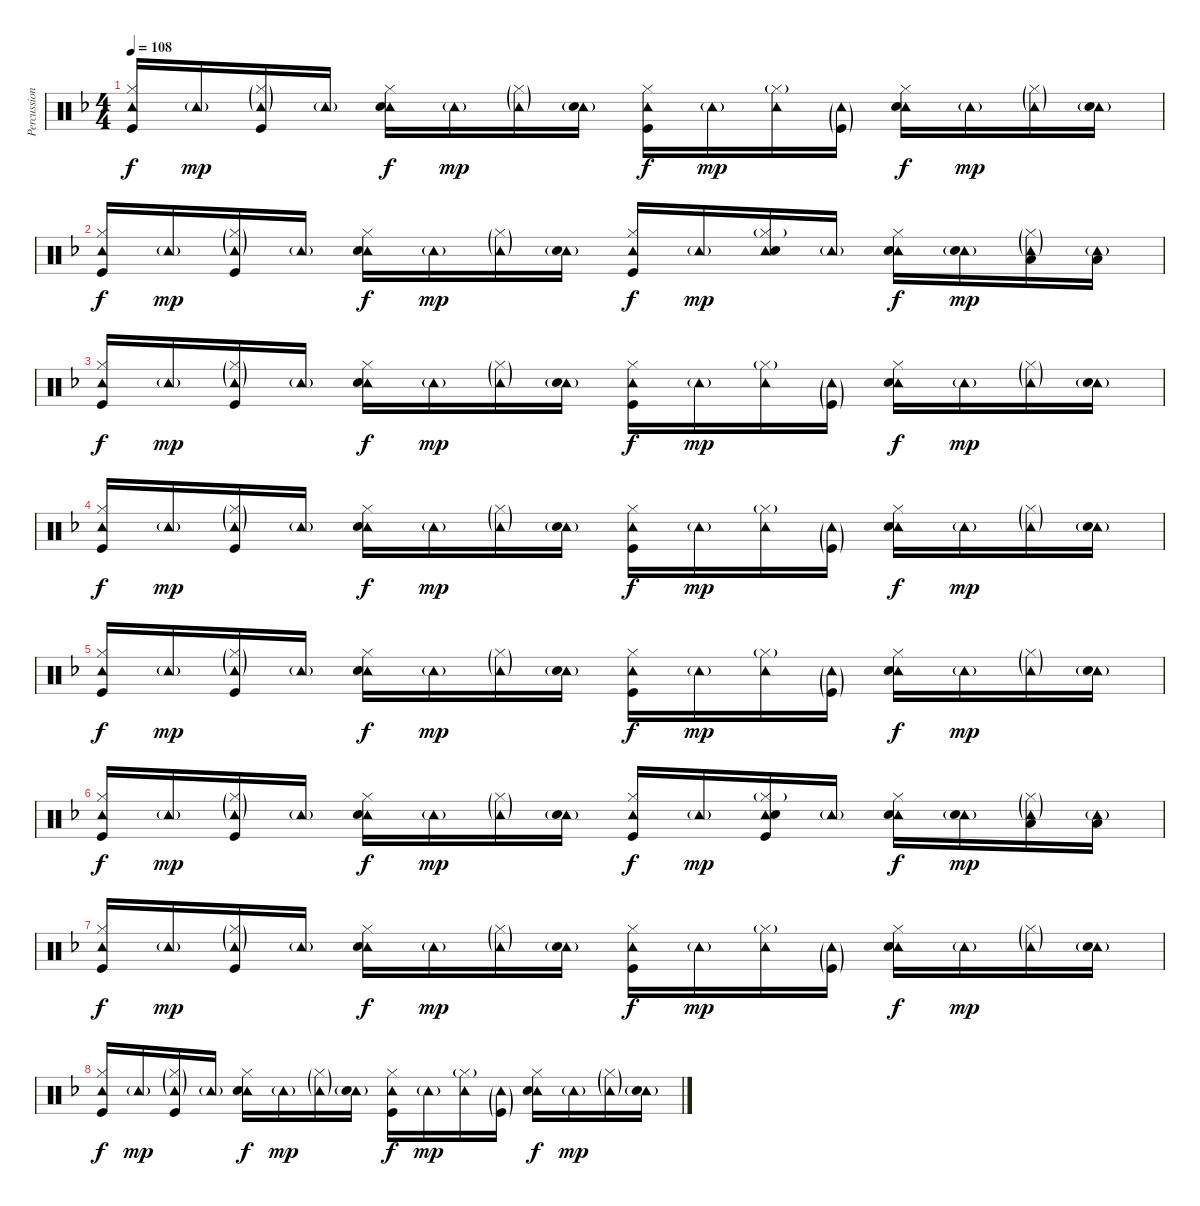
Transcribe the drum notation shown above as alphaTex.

\track ("Percussion" "Percussion") {instrument percussion}
\staff {score}
\articulation defaults
\ts (4 4)
\tempo 108
\clef neutral
\ks f
("Tambourine (hit)" "Hi-Hat (closed)" "Kick (hit)").16{dy f} "Tambourine (hit)"{g}.16{dy mp} ("Tambourine (hit)"{g} "Hi-Hat (closed)"{g} "Kick (hit)").16 "Tambourine (hit)"{g}.16 ("Tambourine (hit)" "Hi-Hat (closed)" "Snare (hit) 2").16{dy f} "Tambourine (hit)"{g}.16{dy mp} ("Tambourine (hit)"{g} "Hi-Hat (closed)"{g}).16 ("Tambourine (hit)"{g} "Snare (hit) 2"{g}).16 ("Tambourine (hit)" "Hi-Hat (closed)" "Kick (hit)").16{dy f} "Tambourine (hit)"{g}.16{dy mp} ("Tambourine (hit)" "Hi-Hat (closed)"{g}).16 ("Tambourine (hit)"{g} "Kick (hit)"{g}).16 ("Tambourine (hit)" "Hi-Hat (closed)" "Snare (hit) 2").16{dy f} "Tambourine (hit)"{g}.16{dy mp} ("Tambourine (hit)"{g} "Hi-Hat (closed)"{g}).16 ("Tambourine (hit)"{g} "Snare (hit) 2"{g}).16 |
("Tambourine (hit)" "Hi-Hat (closed)" "Kick (hit)").16{dy f} "Tambourine (hit)"{g}.16{dy mp} ("Tambourine (hit)"{g} "Hi-Hat (closed)"{g} "Kick (hit)").16 "Tambourine (hit)"{g}.16 ("Tambourine (hit)" "Hi-Hat (closed)" "Snare (hit) 2").16{dy f} "Tambourine (hit)"{g}.16{dy mp} ("Tambourine (hit)"{g} "Hi-Hat (closed)"{g}).16 ("Tambourine (hit)"{g} "Snare (hit) 2"{g}).16 ("Tambourine (hit)" "Hi-Hat (closed)" "Kick (hit)").16{dy f} "Tambourine (hit)"{g}.16{dy mp} ("Tambourine (hit)" "Hi-Hat (closed)"{g} "Snare (hit) 2").16 "Tambourine (hit)"{g}.16 ("Tambourine (hit)" "Hi-Hat (closed)" "Snare (hit) 2").16{dy f} ("Tambourine (hit)"{g} "Snare (hit) 2").16{dy mp} ("Tambourine (hit)"{g} "Hi-Hat (closed)"{g} "Low Tom (hit)").16 ("Tambourine (hit)"{g} "Low Tom (hit)").16 |
("Tambourine (hit)" "Hi-Hat (closed)" "Kick (hit)").16{dy f} "Tambourine (hit)"{g}.16{dy mp} ("Tambourine (hit)"{g} "Hi-Hat (closed)"{g} "Kick (hit)").16 "Tambourine (hit)"{g}.16 ("Tambourine (hit)" "Hi-Hat (closed)" "Snare (hit) 2").16{dy f} "Tambourine (hit)"{g}.16{dy mp} ("Tambourine (hit)"{g} "Hi-Hat (closed)"{g}).16 ("Tambourine (hit)"{g} "Snare (hit) 2"{g}).16 ("Tambourine (hit)" "Hi-Hat (closed)" "Kick (hit)").16{dy f} "Tambourine (hit)"{g}.16{dy mp} ("Tambourine (hit)" "Hi-Hat (closed)"{g}).16 ("Tambourine (hit)"{g} "Kick (hit)"{g}).16 ("Tambourine (hit)" "Hi-Hat (closed)" "Snare (hit) 2").16{dy f} "Tambourine (hit)"{g}.16{dy mp} ("Tambourine (hit)"{g} "Hi-Hat (closed)"{g}).16 ("Tambourine (hit)"{g} "Snare (hit) 2"{g}).16 |
("Tambourine (hit)" "Hi-Hat (closed)" "Kick (hit)").16{dy f} "Tambourine (hit)"{g}.16{dy mp} ("Tambourine (hit)"{g} "Hi-Hat (closed)"{g} "Kick (hit)").16 "Tambourine (hit)"{g}.16 ("Tambourine (hit)" "Hi-Hat (closed)" "Snare (hit) 2").16{dy f} "Tambourine (hit)"{g}.16{dy mp} ("Tambourine (hit)"{g} "Hi-Hat (closed)"{g}).16 ("Tambourine (hit)"{g} "Snare (hit) 2"{g}).16 ("Tambourine (hit)" "Hi-Hat (closed)" "Kick (hit)").16{dy f} "Tambourine (hit)"{g}.16{dy mp} ("Tambourine (hit)" "Hi-Hat (closed)"{g}).16 ("Tambourine (hit)"{g} "Kick (hit)"{g}).16 ("Tambourine (hit)" "Hi-Hat (closed)" "Snare (hit) 2").16{dy f} "Tambourine (hit)"{g}.16{dy mp} ("Tambourine (hit)"{g} "Hi-Hat (closed)"{g}).16 ("Tambourine (hit)"{g} "Snare (hit) 2"{g}).16 |
("Tambourine (hit)" "Hi-Hat (closed)" "Kick (hit)").16{dy f} "Tambourine (hit)"{g}.16{dy mp} ("Tambourine (hit)"{g} "Hi-Hat (closed)"{g} "Kick (hit)").16 "Tambourine (hit)"{g}.16 ("Tambourine (hit)" "Hi-Hat (closed)" "Snare (hit) 2").16{dy f} "Tambourine (hit)"{g}.16{dy mp} ("Tambourine (hit)"{g} "Hi-Hat (closed)"{g}).16 ("Tambourine (hit)"{g} "Snare (hit) 2"{g}).16 ("Tambourine (hit)" "Hi-Hat (closed)" "Kick (hit)").16{dy f} "Tambourine (hit)"{g}.16{dy mp} ("Tambourine (hit)" "Hi-Hat (closed)"{g}).16 ("Tambourine (hit)"{g} "Kick (hit)"{g}).16 ("Tambourine (hit)" "Hi-Hat (closed)" "Snare (hit) 2").16{dy f} "Tambourine (hit)"{g}.16{dy mp} ("Tambourine (hit)"{g} "Hi-Hat (closed)"{g}).16 ("Tambourine (hit)"{g} "Snare (hit) 2"{g}).16 |
("Tambourine (hit)" "Hi-Hat (closed)" "Kick (hit)").16{dy f} "Tambourine (hit)"{g}.16{dy mp} ("Tambourine (hit)"{g} "Hi-Hat (closed)"{g} "Kick (hit)").16 "Tambourine (hit)"{g}.16 ("Tambourine (hit)" "Hi-Hat (closed)" "Snare (hit) 2").16{dy f} "Tambourine (hit)"{g}.16{dy mp} ("Tambourine (hit)"{g} "Hi-Hat (closed)"{g}).16 ("Tambourine (hit)"{g} "Snare (hit) 2"{g}).16 ("Tambourine (hit)" "Hi-Hat (closed)" "Kick (hit)").16{dy f} "Tambourine (hit)"{g}.16{dy mp} ("Tambourine (hit)" "Hi-Hat (closed)"{g} "Snare (hit) 2" "Kick (hit)").16 "Tambourine (hit)"{g}.16 ("Tambourine (hit)" "Hi-Hat (closed)" "Snare (hit) 2").16{dy f} ("Tambourine (hit)"{g} "Snare (hit) 2").16{dy mp} ("Tambourine (hit)"{g} "Hi-Hat (closed)"{g} "Low Tom (hit)").16 ("Tambourine (hit)"{g} "Low Tom (hit)").16 |
("Tambourine (hit)" "Hi-Hat (closed)" "Kick (hit)").16{dy f} "Tambourine (hit)"{g}.16{dy mp} ("Tambourine (hit)"{g} "Hi-Hat (closed)"{g} "Kick (hit)").16 "Tambourine (hit)"{g}.16 ("Tambourine (hit)" "Hi-Hat (closed)" "Snare (hit) 2").16{dy f} "Tambourine (hit)"{g}.16{dy mp} ("Tambourine (hit)"{g} "Hi-Hat (closed)"{g}).16 ("Tambourine (hit)"{g} "Snare (hit) 2"{g}).16 ("Tambourine (hit)" "Hi-Hat (closed)" "Kick (hit)").16{dy f} "Tambourine (hit)"{g}.16{dy mp} ("Tambourine (hit)" "Hi-Hat (closed)"{g}).16 ("Tambourine (hit)"{g} "Kick (hit)"{g}).16 ("Tambourine (hit)" "Hi-Hat (closed)" "Snare (hit) 2").16{dy f} "Tambourine (hit)"{g}.16{dy mp} ("Tambourine (hit)"{g} "Hi-Hat (closed)"{g}).16 ("Tambourine (hit)"{g} "Snare (hit) 2"{g}).16 |
("Tambourine (hit)" "Hi-Hat (closed)" "Kick (hit)").16{dy f} "Tambourine (hit)"{g}.16{dy mp} ("Tambourine (hit)"{g} "Hi-Hat (closed)"{g} "Kick (hit)").16 "Tambourine (hit)"{g}.16 ("Tambourine (hit)" "Hi-Hat (closed)" "Snare (hit) 2").16{dy f} "Tambourine (hit)"{g}.16{dy mp} ("Tambourine (hit)"{g} "Hi-Hat (closed)"{g}).16 ("Tambourine (hit)"{g} "Snare (hit) 2"{g}).16 ("Tambourine (hit)" "Hi-Hat (closed)" "Kick (hit)").16{dy f} "Tambourine (hit)"{g}.16{dy mp} ("Tambourine (hit)" "Hi-Hat (closed)"{g}).16 ("Tambourine (hit)"{g} "Kick (hit)"{g}).16 ("Tambourine (hit)" "Hi-Hat (closed)" "Snare (hit) 2").16{dy f} "Tambourine (hit)"{g}.16{dy mp} ("Tambourine (hit)"{g} "Hi-Hat (closed)"{g}).16 ("Tambourine (hit)"{g} "Snare (hit) 2"{g}).16
